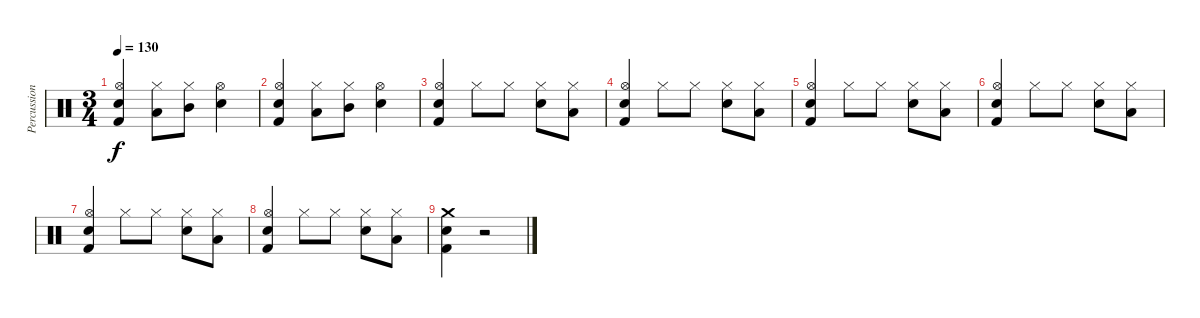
\track ("Percussion" "Percussion") {instrument percussion}
\staff {score}
\articulation defaults
\ts (3 4)
\tempo 130
\clef neutral
\ks c
("Snare (hit) 2" "Hi-Hat (open)" "Kick (hit) 2").4{dy f} ("Low Tom (hit)" "Hi-Hat (closed)").8 ("Mid Tom (hit)" "Hi-Hat (closed)").8 ("Snare (hit) 2" "Hi-Hat (open)").4 |
("Snare (hit) 2" "Hi-Hat (open)" "Kick (hit) 2").4 ("Low Tom (hit)" "Hi-Hat (closed)").8 ("Mid Tom (hit)" "Hi-Hat (closed)").8 ("Snare (hit) 2" "Hi-Hat (open)").4 |
("Snare (hit) 2" "Hi-Hat (open)" "Kick (hit) 2").4 "Hi-Hat (closed)".8 "Hi-Hat (closed)".8 ("Snare (hit) 2" "Hi-Hat (closed)").8 ("Low Tom (hit)" "Hi-Hat (closed)").8 |
("Snare (hit) 2" "Hi-Hat (open)" "Kick (hit) 2").4 "Hi-Hat (closed)".8 "Hi-Hat (closed)".8 ("Snare (hit) 2" "Hi-Hat (closed)").8 ("Low Tom (hit)" "Hi-Hat (closed)").8 |
("Snare (hit) 2" "Hi-Hat (open)" "Kick (hit) 2").4 "Hi-Hat (closed)".8 "Hi-Hat (closed)".8 ("Snare (hit) 2" "Hi-Hat (closed)").8 ("Low Tom (hit)" "Hi-Hat (closed)").8 |
("Snare (hit) 2" "Hi-Hat (open)" "Kick (hit) 2").4 "Hi-Hat (closed)".8 "Hi-Hat (closed)".8 ("Snare (hit) 2" "Hi-Hat (closed)").8 ("Low Tom (hit)" "Hi-Hat (closed)").8 |
("Snare (hit) 2" "Hi-Hat (open)" "Kick (hit) 2").4 "Hi-Hat (closed)".8 "Hi-Hat (closed)".8 ("Snare (hit) 2" "Hi-Hat (closed)").8 ("Low Tom (hit)" "Hi-Hat (closed)").8 |
("Snare (hit) 2" "Hi-Hat (open)" "Kick (hit) 2").4 "Hi-Hat (closed)".8 "Hi-Hat (closed)".8 ("Snare (hit) 2" "Hi-Hat (closed)").8 ("Low Tom (hit)" "Hi-Hat (closed)").8 |
("Snare (hit) 2" "Crash medium (hit)" "Kick (hit) 2").4 r.2
